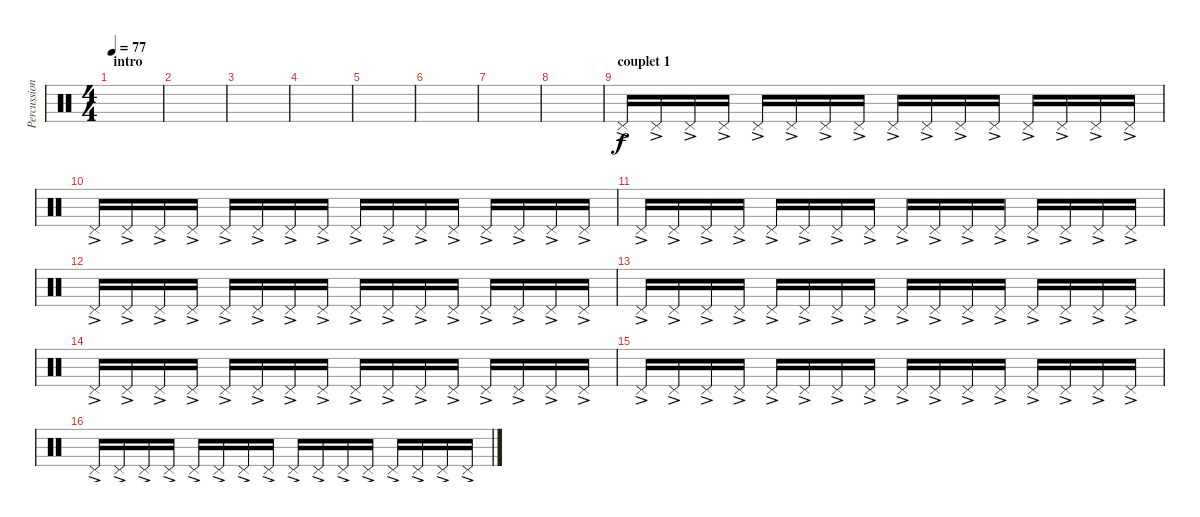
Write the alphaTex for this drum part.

\track ("Percussions (hit-hat)" "Percussion") {instrument percussion}
\staff {score}
\articulation defaults
\ts (4 4)
\section ("" "intro")
\tempo 77
\clef neutral
\ks c
|
|
|
|
|
|
|
|
\section ("" "couplet 1")
"Pedal Hi-Hat (hit)"{ac}.16 "Pedal Hi-Hat (hit)"{ac}.16 "Pedal Hi-Hat (hit)"{ac}.16 "Pedal Hi-Hat (hit)"{ac}.16 "Pedal Hi-Hat (hit)"{ac}.16 "Pedal Hi-Hat (hit)"{ac}.16 "Pedal Hi-Hat (hit)"{ac}.16 "Pedal Hi-Hat (hit)"{ac}.16 "Pedal Hi-Hat (hit)"{ac}.16 "Pedal Hi-Hat (hit)"{ac}.16 "Pedal Hi-Hat (hit)"{ac}.16 "Pedal Hi-Hat (hit)"{ac}.16 "Pedal Hi-Hat (hit)"{ac}.16 "Pedal Hi-Hat (hit)"{ac}.16 "Pedal Hi-Hat (hit)"{ac}.16 "Pedal Hi-Hat (hit)"{ac}.16 |
"Pedal Hi-Hat (hit)"{ac}.16 "Pedal Hi-Hat (hit)"{ac}.16 "Pedal Hi-Hat (hit)"{ac}.16 "Pedal Hi-Hat (hit)"{ac}.16 "Pedal Hi-Hat (hit)"{ac}.16 "Pedal Hi-Hat (hit)"{ac}.16 "Pedal Hi-Hat (hit)"{ac}.16 "Pedal Hi-Hat (hit)"{ac}.16 "Pedal Hi-Hat (hit)"{ac}.16 "Pedal Hi-Hat (hit)"{ac}.16 "Pedal Hi-Hat (hit)"{ac}.16 "Pedal Hi-Hat (hit)"{ac}.16 "Pedal Hi-Hat (hit)"{ac}.16 "Pedal Hi-Hat (hit)"{ac}.16 "Pedal Hi-Hat (hit)"{ac}.16 "Pedal Hi-Hat (hit)"{ac}.16 |
"Pedal Hi-Hat (hit)"{ac}.16 "Pedal Hi-Hat (hit)"{ac}.16 "Pedal Hi-Hat (hit)"{ac}.16 "Pedal Hi-Hat (hit)"{ac}.16 "Pedal Hi-Hat (hit)"{ac}.16 "Pedal Hi-Hat (hit)"{ac}.16 "Pedal Hi-Hat (hit)"{ac}.16 "Pedal Hi-Hat (hit)"{ac}.16 "Pedal Hi-Hat (hit)"{ac}.16 "Pedal Hi-Hat (hit)"{ac}.16 "Pedal Hi-Hat (hit)"{ac}.16 "Pedal Hi-Hat (hit)"{ac}.16 "Pedal Hi-Hat (hit)"{ac}.16 "Pedal Hi-Hat (hit)"{ac}.16 "Pedal Hi-Hat (hit)"{ac}.16 "Pedal Hi-Hat (hit)"{ac}.16 |
"Pedal Hi-Hat (hit)"{ac}.16 "Pedal Hi-Hat (hit)"{ac}.16 "Pedal Hi-Hat (hit)"{ac}.16 "Pedal Hi-Hat (hit)"{ac}.16 "Pedal Hi-Hat (hit)"{ac}.16 "Pedal Hi-Hat (hit)"{ac}.16 "Pedal Hi-Hat (hit)"{ac}.16 "Pedal Hi-Hat (hit)"{ac}.16 "Pedal Hi-Hat (hit)"{ac}.16 "Pedal Hi-Hat (hit)"{ac}.16 "Pedal Hi-Hat (hit)"{ac}.16 "Pedal Hi-Hat (hit)"{ac}.16 "Pedal Hi-Hat (hit)"{ac}.16 "Pedal Hi-Hat (hit)"{ac}.16 "Pedal Hi-Hat (hit)"{ac}.16 "Pedal Hi-Hat (hit)"{ac}.16 |
"Pedal Hi-Hat (hit)"{ac}.16 "Pedal Hi-Hat (hit)"{ac}.16 "Pedal Hi-Hat (hit)"{ac}.16 "Pedal Hi-Hat (hit)"{ac}.16 "Pedal Hi-Hat (hit)"{ac}.16 "Pedal Hi-Hat (hit)"{ac}.16 "Pedal Hi-Hat (hit)"{ac}.16 "Pedal Hi-Hat (hit)"{ac}.16 "Pedal Hi-Hat (hit)"{ac}.16 "Pedal Hi-Hat (hit)"{ac}.16 "Pedal Hi-Hat (hit)"{ac}.16 "Pedal Hi-Hat (hit)"{ac}.16 "Pedal Hi-Hat (hit)"{ac}.16 "Pedal Hi-Hat (hit)"{ac}.16 "Pedal Hi-Hat (hit)"{ac}.16 "Pedal Hi-Hat (hit)"{ac}.16 |
"Pedal Hi-Hat (hit)"{ac}.16 "Pedal Hi-Hat (hit)"{ac}.16 "Pedal Hi-Hat (hit)"{ac}.16 "Pedal Hi-Hat (hit)"{ac}.16 "Pedal Hi-Hat (hit)"{ac}.16 "Pedal Hi-Hat (hit)"{ac}.16 "Pedal Hi-Hat (hit)"{ac}.16 "Pedal Hi-Hat (hit)"{ac}.16 "Pedal Hi-Hat (hit)"{ac}.16 "Pedal Hi-Hat (hit)"{ac}.16 "Pedal Hi-Hat (hit)"{ac}.16 "Pedal Hi-Hat (hit)"{ac}.16 "Pedal Hi-Hat (hit)"{ac}.16 "Pedal Hi-Hat (hit)"{ac}.16 "Pedal Hi-Hat (hit)"{ac}.16 "Pedal Hi-Hat (hit)"{ac}.16 |
"Pedal Hi-Hat (hit)"{ac}.16 "Pedal Hi-Hat (hit)"{ac}.16 "Pedal Hi-Hat (hit)"{ac}.16 "Pedal Hi-Hat (hit)"{ac}.16 "Pedal Hi-Hat (hit)"{ac}.16 "Pedal Hi-Hat (hit)"{ac}.16 "Pedal Hi-Hat (hit)"{ac}.16 "Pedal Hi-Hat (hit)"{ac}.16 "Pedal Hi-Hat (hit)"{ac}.16 "Pedal Hi-Hat (hit)"{ac}.16 "Pedal Hi-Hat (hit)"{ac}.16 "Pedal Hi-Hat (hit)"{ac}.16 "Pedal Hi-Hat (hit)"{ac}.16 "Pedal Hi-Hat (hit)"{ac}.16 "Pedal Hi-Hat (hit)"{ac}.16 "Pedal Hi-Hat (hit)"{ac}.16 |
"Pedal Hi-Hat (hit)"{ac}.16 "Pedal Hi-Hat (hit)"{ac}.16 "Pedal Hi-Hat (hit)"{ac}.16 "Pedal Hi-Hat (hit)"{ac}.16 "Pedal Hi-Hat (hit)"{ac}.16 "Pedal Hi-Hat (hit)"{ac}.16 "Pedal Hi-Hat (hit)"{ac}.16 "Pedal Hi-Hat (hit)"{ac}.16 "Pedal Hi-Hat (hit)"{ac}.16 "Pedal Hi-Hat (hit)"{ac}.16 "Pedal Hi-Hat (hit)"{ac}.16 "Pedal Hi-Hat (hit)"{ac}.16 "Pedal Hi-Hat (hit)"{ac}.16 "Pedal Hi-Hat (hit)"{ac}.16 "Pedal Hi-Hat (hit)"{ac}.16 "Pedal Hi-Hat (hit)"{ac}.16
